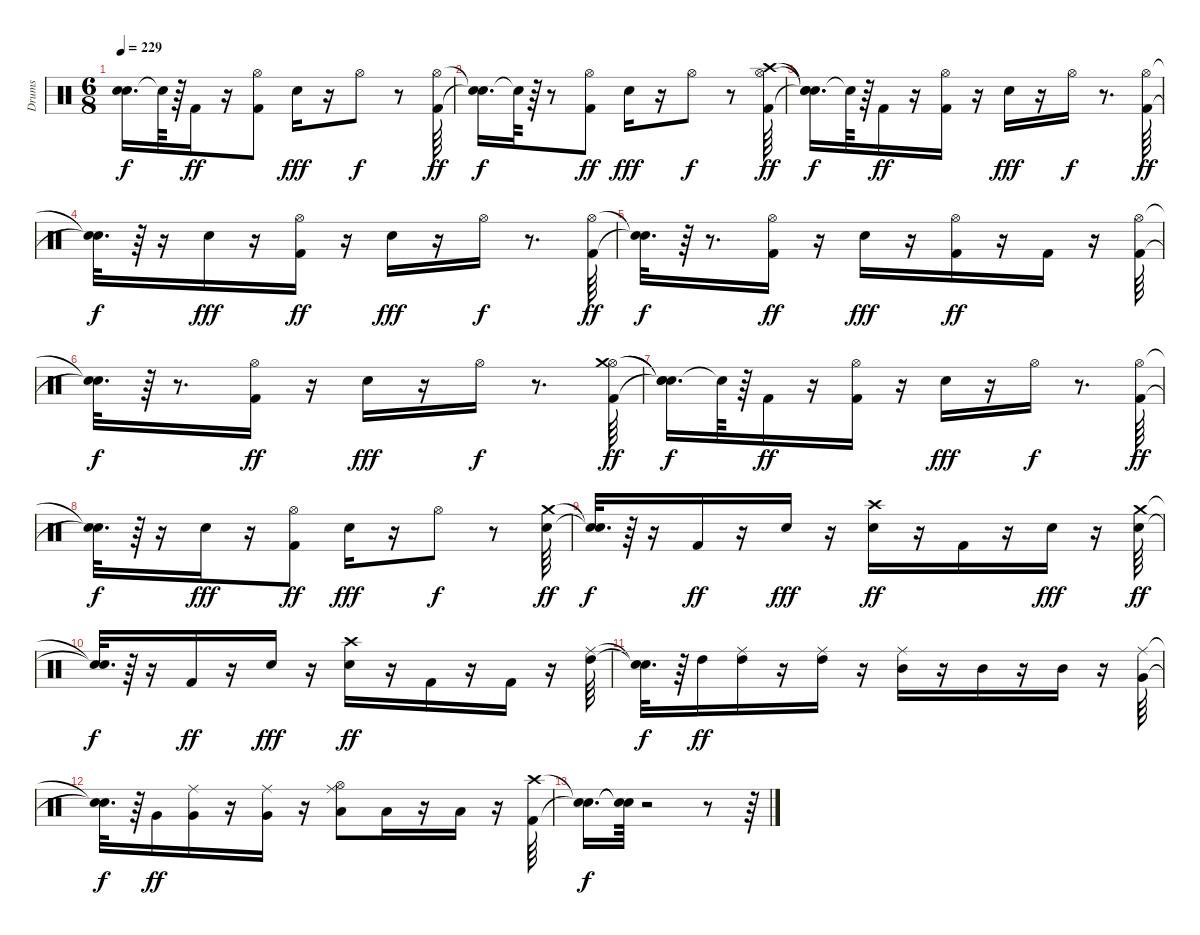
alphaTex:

\track ("Drums" "Drums") {instrument percussion}
\staff {score}
\articulation defaults
\ts (6 8)
\tempo 229
\clef neutral
\ks c
("Snare (hit)"{t} "Snare (hit)"{t}).16{d dy f} "Snare (hit)"{t}.64 r.64 "Kick (hit) 2".16{dy ff} r.16 ("Kick (hit) 2" "Hi-Hat (open)").8 "Snare (hit) 2".16{dy fff} r.16 "Hi-Hat (open)".8{dy f} r.8 ("Kick (hit) 2" "Hi-Hat (open)").64{dy ff} |
("Snare (hit)"{t} "Snare (hit)"{t}).16{d dy f} "Snare (hit)"{t}.64 r.64 r.8 ("Kick (hit) 2" "Hi-Hat (open)").8{dy ff} "Snare (hit) 2".16{dy fff} r.16 "Hi-Hat (open)".8{dy f} r.8 ("Kick (hit) 2" "Hi-Hat (open)" "Crash high (hit)").64{dy ff} |
("Snare (hit)"{t} "Snare (hit)"{t} "Snare (hit)"{t}).16{d dy f} "Snare (hit)"{t}.64 r.64 "Kick (hit) 2".16{dy ff} r.16 ("Kick (hit) 2" "Hi-Hat (open)").16 r.16 "Snare (hit) 2".16{dy fff} r.16 "Hi-Hat (open)".16{dy f} r.8{d} ("Kick (hit) 2" "Hi-Hat (open)").64{dy ff} |
("Snare (hit)"{t} "Snare (hit)"{t}).32{d dy f} r.64 r.16 "Snare (hit) 2".16{dy fff} r.16 ("Kick (hit) 2" "Hi-Hat (open)").16{dy ff} r.16 "Snare (hit) 2".16{dy fff} r.16 "Hi-Hat (open)".16{dy f} r.8{d} ("Kick (hit) 2" "Hi-Hat (open)").64{dy ff} |
("Snare (hit)"{t} "Snare (hit)"{t}).32{d dy f} r.64 r.8{d} ("Kick (hit) 2" "Hi-Hat (open)").16{dy ff} r.16 "Snare (hit) 2".16{dy fff} r.16 ("Kick (hit) 2" "Hi-Hat (open)").16{dy ff} r.16 "Kick (hit) 2".16 r.16 ("Kick (hit) 2" "Hi-Hat (open)").64 |
("Snare (hit)"{t} "Snare (hit)"{t}).32{d dy f} r.64 r.8{d} ("Kick (hit) 2" "Hi-Hat (open)").16{dy ff} r.16 "Snare (hit) 2".16{dy fff} r.16 "Hi-Hat (open)".16{dy f} r.8{d} ("Kick (hit) 2" "Hi-Hat (open)" "Crash medium (hit)").64{dy ff} |
("Snare (hit)"{t} "Snare (hit)"{t} "Snare (hit)"{t}).16{d dy f} "Snare (hit)"{t}.64 r.64 "Kick (hit) 2".16{dy ff} r.16 ("Kick (hit) 2" "Hi-Hat (open)").16 r.16 "Snare (hit) 2".16{dy fff} r.16 "Hi-Hat (open)".16{dy f} r.8{d} ("Kick (hit) 2" "Hi-Hat (open)").64{dy ff} |
("Snare (hit)"{t} "Snare (hit)"{t}).32{d dy f} r.64 r.16 "Snare (hit) 2".16{dy fff} r.16 ("Kick (hit) 2" "Hi-Hat (open)").8{dy ff} "Snare (hit) 2".16{dy fff} r.16 "Hi-Hat (open)".8{dy f} r.8 ("Snare (hit) 2" "Crash medium (hit)").64{dy ff} |
("Snare (hit)"{t} "Snare (hit)"{t}).32{d dy f} r.64 r.16 "Kick (hit) 2".16{dy ff} r.16 "Snare (hit) 2".16{dy fff} r.16 ("Snare (hit) 2" "Crash high (hit)").16{dy ff} r.16 "Kick (hit) 2".16 r.16 "Snare (hit) 2".16{dy fff} r.16 ("Snare (hit) 2" "Crash medium (hit)").64{dy ff} |
("Snare (hit)"{t} "Snare (hit)"{t}).32{d dy f} r.64 r.16 "Kick (hit) 2".16{dy ff} r.16 "Snare (hit) 2".16{dy fff} r.16 ("Snare (hit) 2" "Crash high (hit)").16{dy ff} r.16 "Kick (hit) 2".16 r.16 "Kick (hit) 2".16{volume 16} r.16 ("Ride (middle)" "High Tom (hit)").64 |
("Snare (hit)"{t} "Snare (hit)"{t}).32{d dy f} r.64 "High Tom (hit)".16{dy ff} ("Ride (middle)" "High Tom (hit)").16 r.16 ("Ride (middle)" "High Tom (hit)").16 r.16 ("Ride (middle)" "Mid Tom (hit)").16 r.16 "Mid Tom (hit)".16 r.16 "Mid Tom (hit)".16 r.16 ("Ride (middle)" "Very Low Tom (hit)").64 |
("Snare (hit)"{t} "Snare (hit)"{t}).32{d dy f} r.64 "Very Low Tom (hit)".16{dy ff} ("Ride (middle)" "Very Low Tom (hit)").16 r.16 ("Ride (middle)" "Very Low Tom (hit)").16 r.16 ("Hi-Hat (open)" "Ride (middle)" "Low Floor Tom (hit)").8 "Low Floor Tom (hit)".16 r.16 "Low Floor Tom (hit)".16 r.16 ("Kick (hit) 2" "Crash high (hit)").64 |
("Snare (hit)"{t} "Snare (hit)"{t}).16{d dy f} ("Snare (hit)"{t} "Snare (hit)"{t}).64 r.2 r.8 r.64
